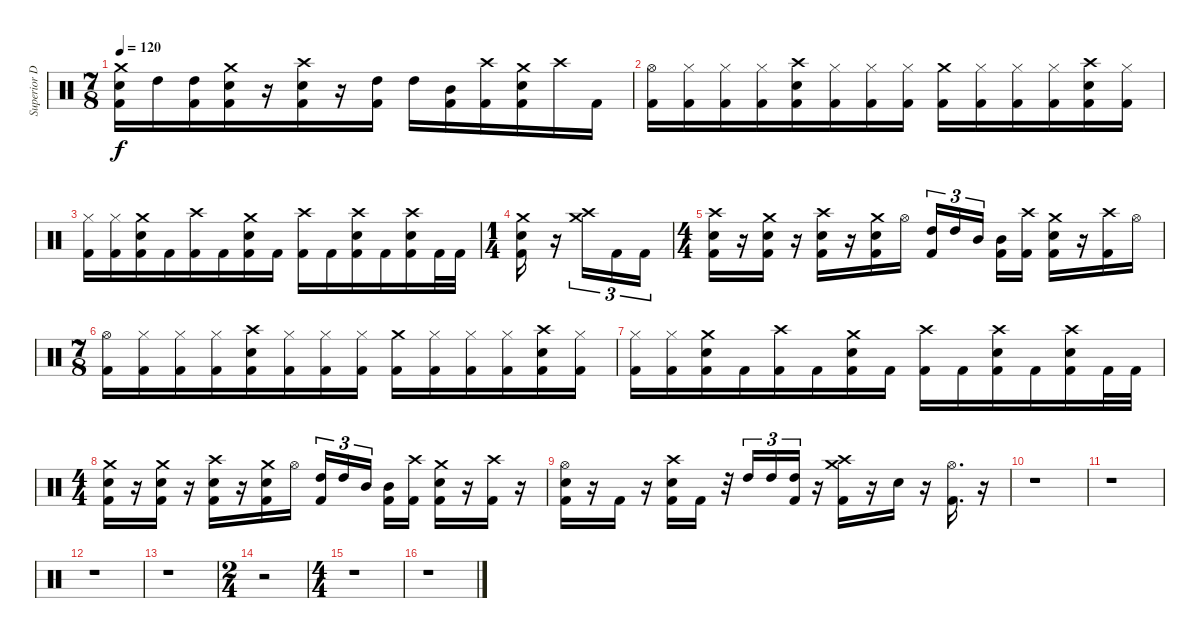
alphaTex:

\track ("Superior Drummer 06" "Superior D") {instrument percussion}
\staff {score}
\articulation defaults
\ts (7 8)
\tempo 120
\clef neutral
\ks c
("Kick (hit) 2" "Snare (hit) 2" "Crash medium (hit)").16{dy f} "High Tom (hit)".16 ("Kick (hit) 2" "High Tom (hit)").16 ("Kick (hit) 2" "Snare (hit) 2" "Crash medium (hit)").16 r.16 ("Kick (hit) 2" "Snare (hit) 2" "Crash high (hit)").16 r.16 ("Kick (hit) 2" "High Tom (hit)").16 "High Tom (hit)".16 ("Kick (hit) 2" "Mid Tom (hit)").16 ("Kick (hit) 2" "Crash high (hit)").16 ("Kick (hit) 2" "Snare (hit) 2" "Crash medium (hit)").16 "Crash high (hit)".16 "Kick (hit) 2".16 |
("Kick (hit) 2" "Hi-Hat (open)").16 ("Kick (hit) 2" "Hi-Hat (closed)").16 ("Kick (hit) 2" "Hi-Hat (closed)").16 ("Kick (hit) 2" "Hi-Hat (closed)").16 ("Kick (hit) 2" "Snare (hit) 2" "Crash high (hit)").16 ("Kick (hit) 2" "Hi-Hat (closed)").16 ("Kick (hit) 2" "Hi-Hat (closed)").16 ("Kick (hit) 2" "Hi-Hat (closed)").16 ("Kick (hit) 2" "Crash medium (hit)").16 ("Kick (hit) 2" "Hi-Hat (closed)").16 ("Kick (hit) 2" "Hi-Hat (closed)").16 ("Kick (hit) 2" "Hi-Hat (closed)").16 ("Kick (hit) 2" "Snare (hit) 2" "Crash high (hit)").16 ("Kick (hit) 2" "Hi-Hat (closed)").16 |
("Kick (hit) 2" "Hi-Hat (closed)").16 ("Kick (hit) 2" "Hi-Hat (closed)").16 ("Kick (hit) 2" "Snare (hit) 2" "Crash medium (hit)").16 "Kick (hit) 2".16 ("Kick (hit) 2" "Crash high (hit)").16 "Kick (hit) 2".16 ("Kick (hit) 2" "Snare (hit) 2" "Crash medium (hit)").16 "Kick (hit) 2".16 ("Kick (hit) 2" "Crash high (hit)").16 "Kick (hit) 2".16 ("Kick (hit) 2" "Snare (hit) 2" "Crash high (hit)").16 "Kick (hit) 2".16 ("Kick (hit) 2" "Snare (hit) 2" "Crash high (hit)").16 "Kick (hit) 2".32 "Kick (hit) 2".32 |
\ts (1 4)
("Kick (hit) 2" "Snare (hit) 2" "Crash medium (hit)").16 r.16 ("Crash high (hit)" "Crash medium (hit)").16{tu (3 2)} "Kick (hit) 2".16{tu (3 2)} "Kick (hit) 2".16{tu (3 2)} |
\ts (4 4)
("Kick (hit) 2" "Snare (hit) 2" "Crash high (hit)").16 r.16 ("Kick (hit) 2" "Snare (hit) 2" "Crash medium (hit)").16 r.16 ("Kick (hit) 2" "Snare (hit) 2" "Crash high (hit)").16 r.16 ("Kick (hit) 2" "Snare (hit) 2" "Crash medium (hit)").16 "Hi-Hat (open)".16 ("Kick (hit) 2" "High Tom (hit)").16{tu (3 2)} "High Tom (hit)".16{tu (3 2)} "Mid Tom (hit)".16{tu (3 2) beam splitsecondary} ("Kick (hit) 2" "Mid Tom (hit)").16 ("Kick (hit) 2" "Crash high (hit)").16 ("Kick (hit) 2" "Snare (hit) 2" "Crash medium (hit)").16 r.16 ("Kick (hit) 2" "Crash high (hit)").16 "Hi-Hat (open)".16 |
\ts (7 8)
("Kick (hit) 2" "Hi-Hat (open)").16 ("Kick (hit) 2" "Hi-Hat (closed)").16 ("Kick (hit) 2" "Hi-Hat (closed)").16 ("Kick (hit) 2" "Hi-Hat (closed)").16 ("Kick (hit) 2" "Snare (hit) 2" "Crash high (hit)").16 ("Kick (hit) 2" "Hi-Hat (closed)").16 ("Kick (hit) 2" "Hi-Hat (closed)").16 ("Kick (hit) 2" "Hi-Hat (closed)").16 ("Kick (hit) 2" "Crash medium (hit)").16 ("Kick (hit) 2" "Hi-Hat (closed)").16 ("Kick (hit) 2" "Hi-Hat (closed)").16 ("Kick (hit) 2" "Hi-Hat (closed)").16 ("Kick (hit) 2" "Snare (hit) 2" "Crash high (hit)").16 ("Kick (hit) 2" "Hi-Hat (closed)").16 |
("Kick (hit) 2" "Hi-Hat (closed)").16 ("Kick (hit) 2" "Hi-Hat (closed)").16 ("Kick (hit) 2" "Snare (hit) 2" "Crash medium (hit)").16 "Kick (hit) 2".16 ("Kick (hit) 2" "Crash high (hit)").16 "Kick (hit) 2".16 ("Kick (hit) 2" "Snare (hit) 2" "Crash medium (hit)").16 "Kick (hit) 2".16 ("Kick (hit) 2" "Crash high (hit)").16 "Kick (hit) 2".16 ("Kick (hit) 2" "Snare (hit) 2" "Crash high (hit)").16 "Kick (hit) 2".16 ("Kick (hit) 2" "Snare (hit) 2" "Crash high (hit)").16 "Kick (hit) 2".32 "Kick (hit) 2".32 |
\ts (4 4)
("Kick (hit) 2" "Snare (hit) 2" "Crash medium (hit)").16 r.16 ("Kick (hit) 2" "Snare (hit) 2" "Crash medium (hit)").16 r.16 ("Kick (hit) 2" "Snare (hit) 2" "Crash high (hit)").16 r.16 ("Kick (hit) 2" "Snare (hit) 2" "Crash medium (hit)").16 "Hi-Hat (open)".16 ("Kick (hit) 2" "High Tom (hit)").16{tu (3 2)} "High Tom (hit)".16{tu (3 2)} "Mid Tom (hit)".16{tu (3 2) beam splitsecondary} ("Kick (hit) 2" "Mid Tom (hit)").16 ("Kick (hit) 2" "Crash high (hit)").16 ("Kick (hit) 2" "Snare (hit) 2" "Crash medium (hit)").16 r.16 ("Kick (hit) 2" "Crash high (hit)").16 r.16 |
("Kick (hit) 2" "Snare (hit) 2" "Hi-Hat (open)").16 r.16 "Kick (hit) 2".16 r.16 ("Kick (hit) 2" "Snare (hit) 2" "Crash high (hit)").16 "Kick (hit) 2".16 r.32 "High Tom (hit)".16{tu (3 2)} "High Tom (hit)".16{tu (3 2)} ("Kick (hit) 2" "High Tom (hit)").16{tu (3 2)} r.16 ("Kick (hit) 2" "Crash high (hit)" "Crash medium (hit)").16 r.16 "Snare (hit) 2".16 r.16 ("Kick (hit) 2" "Hi-Hat (open)").16{d} r.16 |
r.1 |
r.1 |
r.1 |
r.1 |
\ts (2 4)
r.2 |
\ts (4 4)
r.1 |
r.1
